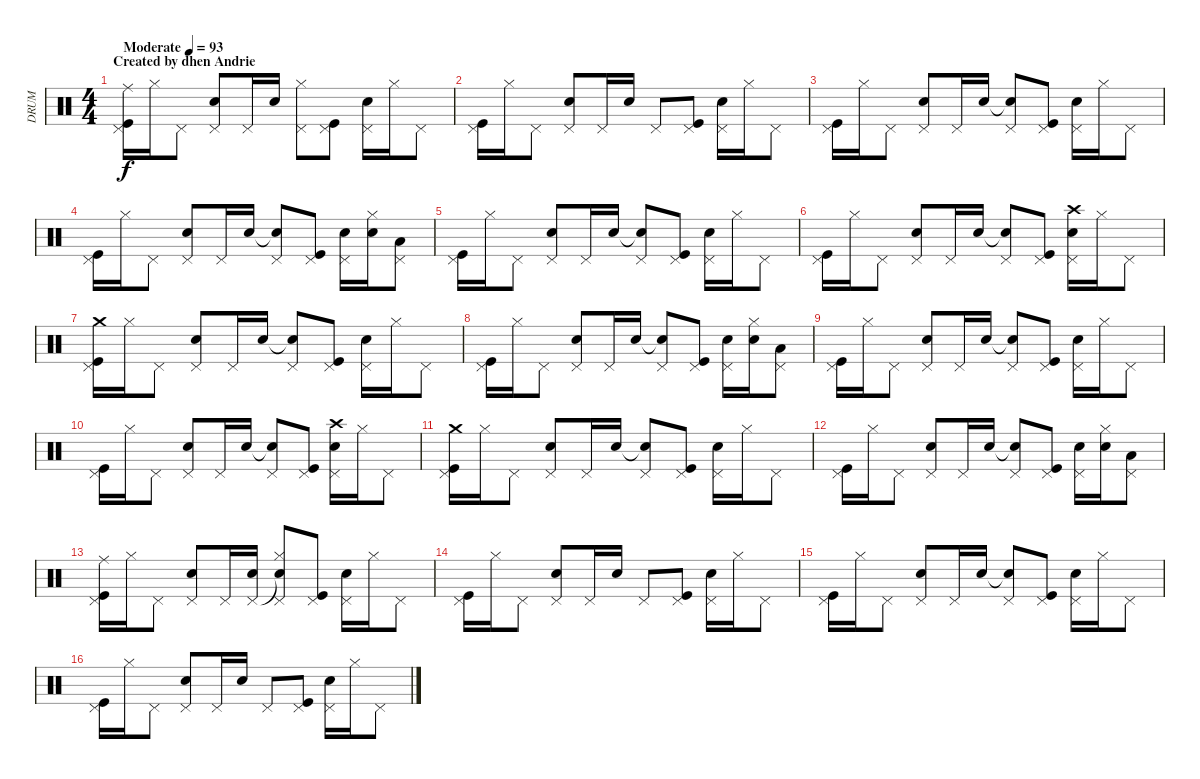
\track ("DRUM" "DRUM") {instrument percussion}
\staff {score}
\articulation defaults
\ts (4 4)
\section ("" "Created by dhen Andrie")
\tempo (93 "Moderate")
\clef neutral
\ks c
("Ride (middle)" "Kick (hit)" "Pedal Hi-Hat (hit)").16{dy f} "Hi-Hat (closed)".16 "Pedal Hi-Hat (hit)".8 ("Snare (hit) 2" "Pedal Hi-Hat (hit)").8 "Pedal Hi-Hat (hit)".16 "Snare (hit) 2".16 ("Hi-Hat (closed)" "Pedal Hi-Hat (hit)").8 ("Kick (hit)" "Pedal Hi-Hat (hit)").8 ("Snare (hit) 2" "Pedal Hi-Hat (hit)").16 "Hi-Hat (closed)".16 "Pedal Hi-Hat (hit)".8 |
("Kick (hit)" "Pedal Hi-Hat (hit)").16 "Hi-Hat (closed)".16 "Pedal Hi-Hat (hit)".8 ("Snare (hit) 2" "Pedal Hi-Hat (hit)").8 "Pedal Hi-Hat (hit)".16 "Snare (hit) 2".16 "Pedal Hi-Hat (hit)".8 ("Kick (hit)" "Pedal Hi-Hat (hit)").8 ("Snare (hit) 2" "Pedal Hi-Hat (hit)").16 "Hi-Hat (closed)".16 "Pedal Hi-Hat (hit)".8 |
("Kick (hit)" "Pedal Hi-Hat (hit)").16 "Hi-Hat (closed)".16 "Pedal Hi-Hat (hit)".8 ("Snare (hit) 2" "Pedal Hi-Hat (hit)").8 "Pedal Hi-Hat (hit)".16 "Snare (hit) 2".16 ("Snare (hit) 2"{t} "Pedal Hi-Hat (hit)").8 ("Kick (hit)" "Pedal Hi-Hat (hit)").8 ("Snare (hit) 2" "Pedal Hi-Hat (hit)").16 "Hi-Hat (closed)".16 "Pedal Hi-Hat (hit)".8 |
("Kick (hit)" "Pedal Hi-Hat (hit)").16 "Hi-Hat (closed)".16 "Pedal Hi-Hat (hit)".8 ("Snare (hit) 2" "Pedal Hi-Hat (hit)").8 "Pedal Hi-Hat (hit)".16 "Snare (hit) 2".16 ("Snare (hit) 2"{t} "Pedal Hi-Hat (hit)").8 ("Kick (hit)" "Pedal Hi-Hat (hit)").8 ("Snare (hit) 2" "Pedal Hi-Hat (hit)").16 ("Hi-Hat (closed)" "Snare (hit) 2").16 ("Low Tom (hit)" "Pedal Hi-Hat (hit)").8 |
("Kick (hit)" "Pedal Hi-Hat (hit)").16 "Hi-Hat (closed)".16 "Pedal Hi-Hat (hit)".8 ("Snare (hit) 2" "Pedal Hi-Hat (hit)").8 "Pedal Hi-Hat (hit)".16 "Snare (hit) 2".16 ("Snare (hit) 2"{t} "Pedal Hi-Hat (hit)").8 ("Kick (hit)" "Pedal Hi-Hat (hit)").8 ("Snare (hit) 2" "Pedal Hi-Hat (hit)").16 "Hi-Hat (closed)".16 "Pedal Hi-Hat (hit)".8 |
("Kick (hit)" "Pedal Hi-Hat (hit)").16 "Hi-Hat (closed)".16 "Pedal Hi-Hat (hit)".8 ("Snare (hit) 2" "Pedal Hi-Hat (hit)").8 "Pedal Hi-Hat (hit)".16 "Snare (hit) 2".16 ("Snare (hit) 2"{t} "Pedal Hi-Hat (hit)").8 ("Kick (hit)" "Pedal Hi-Hat (hit)").8 ("Crash high (hit)" "Snare (hit) 2" "Pedal Hi-Hat (hit)").16 "Hi-Hat (closed)".16 "Pedal Hi-Hat (hit)".8 |
("Crash medium (hit)" "Kick (hit)" "Pedal Hi-Hat (hit)").16 "Hi-Hat (closed)".16 "Pedal Hi-Hat (hit)".8 ("Snare (hit) 2" "Pedal Hi-Hat (hit)").8 "Pedal Hi-Hat (hit)".16 "Snare (hit) 2".16 ("Snare (hit) 2"{t} "Pedal Hi-Hat (hit)").8 ("Kick (hit)" "Pedal Hi-Hat (hit)").8 ("Snare (hit) 2" "Pedal Hi-Hat (hit)").16 "Hi-Hat (closed)".16 "Pedal Hi-Hat (hit)".8 |
("Kick (hit)" "Pedal Hi-Hat (hit)").16 "Hi-Hat (closed)".16 "Pedal Hi-Hat (hit)".8 ("Snare (hit) 2" "Pedal Hi-Hat (hit)").8 "Pedal Hi-Hat (hit)".16 "Snare (hit) 2".16 ("Snare (hit) 2"{t} "Pedal Hi-Hat (hit)").8 ("Kick (hit)" "Pedal Hi-Hat (hit)").8 ("Snare (hit) 2" "Pedal Hi-Hat (hit)").16 ("Hi-Hat (closed)" "Snare (hit) 2").16 ("Low Tom (hit)" "Pedal Hi-Hat (hit)").8 |
("Kick (hit)" "Pedal Hi-Hat (hit)").16 "Hi-Hat (closed)".16 "Pedal Hi-Hat (hit)".8 ("Snare (hit) 2" "Pedal Hi-Hat (hit)").8 "Pedal Hi-Hat (hit)".16 "Snare (hit) 2".16 ("Snare (hit) 2"{t} "Pedal Hi-Hat (hit)").8 ("Kick (hit)" "Pedal Hi-Hat (hit)").8 ("Snare (hit) 2" "Pedal Hi-Hat (hit)").16 "Hi-Hat (closed)".16 "Pedal Hi-Hat (hit)".8 |
("Kick (hit)" "Pedal Hi-Hat (hit)").16 "Hi-Hat (closed)".16 "Pedal Hi-Hat (hit)".8 ("Snare (hit) 2" "Pedal Hi-Hat (hit)").8 "Pedal Hi-Hat (hit)".16 "Snare (hit) 2".16 ("Snare (hit) 2"{t} "Pedal Hi-Hat (hit)").8 ("Kick (hit)" "Pedal Hi-Hat (hit)").8 ("Crash high (hit)" "Snare (hit) 2" "Pedal Hi-Hat (hit)").16 "Hi-Hat (closed)".16 "Pedal Hi-Hat (hit)".8 |
("Crash medium (hit)" "Kick (hit)" "Pedal Hi-Hat (hit)").16 "Hi-Hat (closed)".16 "Pedal Hi-Hat (hit)".8 ("Snare (hit) 2" "Pedal Hi-Hat (hit)").8 "Pedal Hi-Hat (hit)".16 "Snare (hit) 2".16 ("Snare (hit) 2"{t} "Pedal Hi-Hat (hit)").8 ("Kick (hit)" "Pedal Hi-Hat (hit)").8 ("Snare (hit) 2" "Pedal Hi-Hat (hit)").16 "Hi-Hat (closed)".16 "Pedal Hi-Hat (hit)".8 |
("Kick (hit)" "Pedal Hi-Hat (hit)").16 "Hi-Hat (closed)".16 "Pedal Hi-Hat (hit)".8 ("Snare (hit) 2" "Pedal Hi-Hat (hit)").8 "Pedal Hi-Hat (hit)".16 "Snare (hit) 2".16 ("Snare (hit) 2"{t} "Pedal Hi-Hat (hit)").8 ("Kick (hit)" "Pedal Hi-Hat (hit)").8 ("Snare (hit) 2" "Pedal Hi-Hat (hit)").16 ("Hi-Hat (closed)" "Snare (hit) 2").16 ("Low Tom (hit)" "Pedal Hi-Hat (hit)").8 |
("Ride (middle)" "Kick (hit)" "Pedal Hi-Hat (hit)").16 "Hi-Hat (closed)".16 "Pedal Hi-Hat (hit)".8 ("Snare (hit) 2" "Pedal Hi-Hat (hit)").8 "Pedal Hi-Hat (hit)".16 ("Snare (hit) 2" "Pedal Hi-Hat (hit)").16 ("Hi-Hat (closed)" "Snare (hit) 2"{t} "Pedal Hi-Hat (hit)").8 ("Kick (hit)" "Pedal Hi-Hat (hit)").8 ("Snare (hit) 2" "Pedal Hi-Hat (hit)").16 "Hi-Hat (closed)".16 "Pedal Hi-Hat (hit)".8 |
("Kick (hit)" "Pedal Hi-Hat (hit)").16 "Hi-Hat (closed)".16 "Pedal Hi-Hat (hit)".8 ("Snare (hit) 2" "Pedal Hi-Hat (hit)").8 "Pedal Hi-Hat (hit)".16 "Snare (hit) 2".16 "Pedal Hi-Hat (hit)".8 ("Kick (hit)" "Pedal Hi-Hat (hit)").8 ("Snare (hit) 2" "Pedal Hi-Hat (hit)").16 "Hi-Hat (closed)".16 "Pedal Hi-Hat (hit)".8 |
("Kick (hit)" "Pedal Hi-Hat (hit)").16 "Hi-Hat (closed)".16 "Pedal Hi-Hat (hit)".8 ("Snare (hit) 2" "Pedal Hi-Hat (hit)").8 "Pedal Hi-Hat (hit)".16 "Snare (hit) 2".16 ("Snare (hit) 2"{t} "Pedal Hi-Hat (hit)").8 ("Kick (hit)" "Pedal Hi-Hat (hit)").8 ("Snare (hit) 2" "Pedal Hi-Hat (hit)").16 "Hi-Hat (closed)".16 "Pedal Hi-Hat (hit)".8 |
("Kick (hit)" "Pedal Hi-Hat (hit)").16 "Hi-Hat (closed)".16 "Pedal Hi-Hat (hit)".8 ("Snare (hit) 2" "Pedal Hi-Hat (hit)").8 "Pedal Hi-Hat (hit)".16 "Snare (hit) 2".16 "Pedal Hi-Hat (hit)".8 ("Kick (hit)" "Pedal Hi-Hat (hit)").8 ("Snare (hit) 2" "Pedal Hi-Hat (hit)").16 "Hi-Hat (closed)".16 "Pedal Hi-Hat (hit)".8
